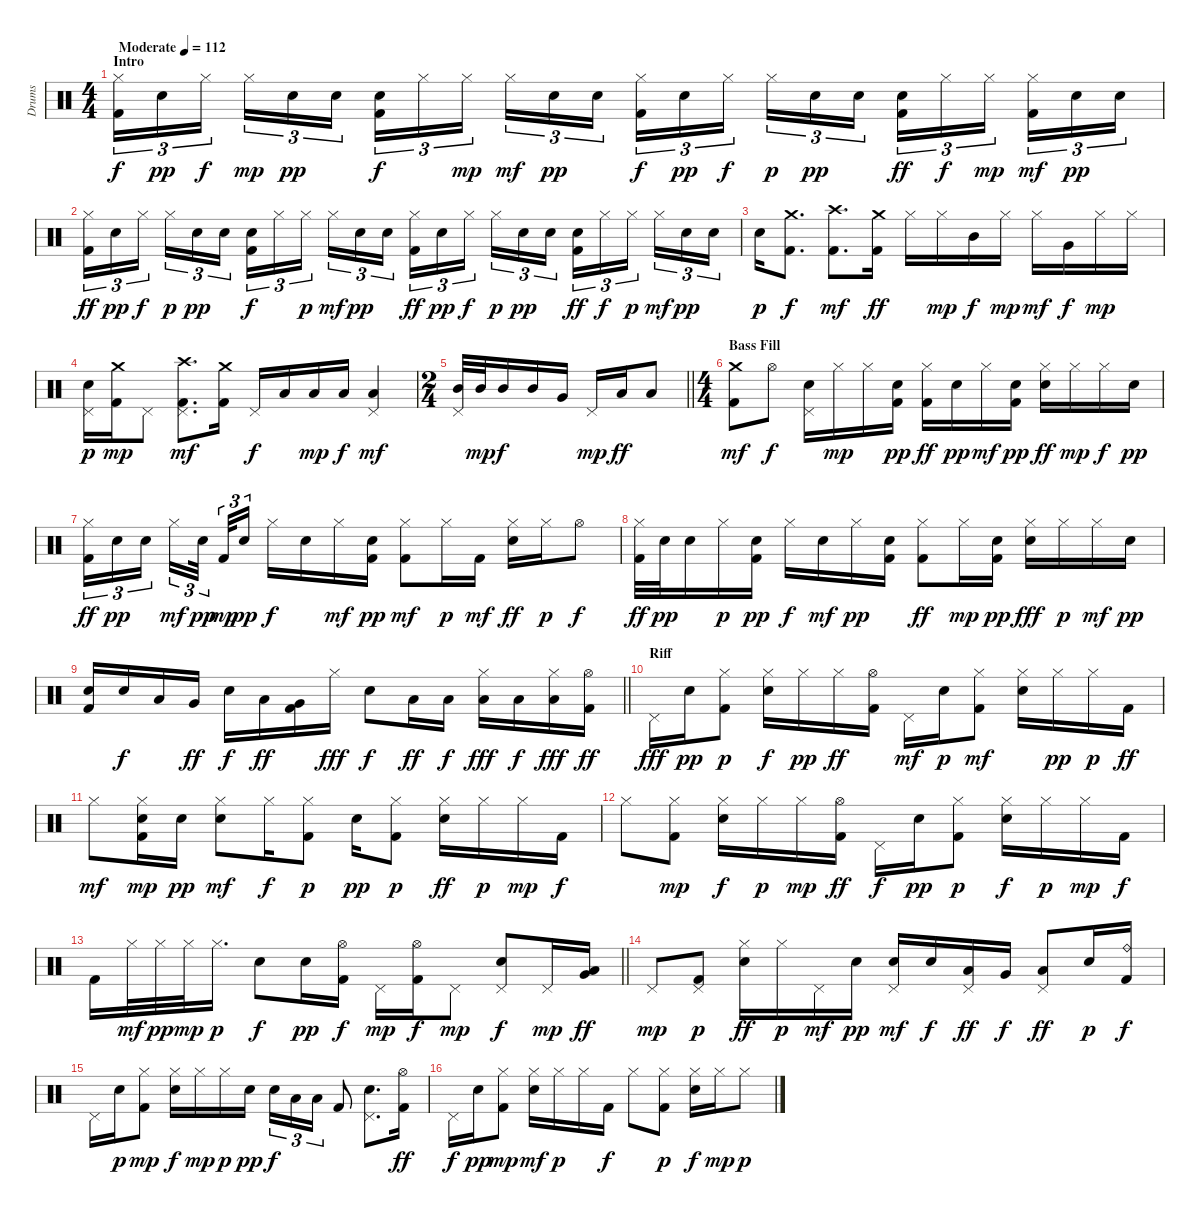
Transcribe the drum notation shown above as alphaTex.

\track ("Drums" "Drums") {instrument percussion}
\staff {score}
\articulation defaults
\ts (4 4)
\section ("" "Intro")
\tempo (112 "Moderate")
\clef neutral
\ks c
("Kick (hit) 2" "Hi-Hat (closed)").16{tu (3 2) dy f} "Snare (hit) 2".16{tu (3 2) dy pp} "Hi-Hat (closed)".16{tu (3 2) dy f beam splitsecondary} "Hi-Hat (closed)".16{tu (3 2) dy mp} "Snare (hit) 2".16{tu (3 2) dy pp} "Snare (hit) 2".16{tu (3 2)} ("Kick (hit) 2" "Snare (hit) 2").16{tu (3 2) dy f} "Hi-Hat (closed)".16{tu (3 2)} "Hi-Hat (closed)".16{tu (3 2) dy mp beam splitsecondary} "Hi-Hat (closed)".16{tu (3 2) dy mf} "Snare (hit) 2".16{tu (3 2) dy pp} "Snare (hit) 2".16{tu (3 2)} ("Kick (hit) 2" "Hi-Hat (closed)").16{tu (3 2) dy f} "Snare (hit) 2".16{tu (3 2) dy pp} "Hi-Hat (closed)".16{tu (3 2) dy f beam splitsecondary} "Hi-Hat (closed)".16{tu (3 2) dy p} "Snare (hit) 2".16{tu (3 2) dy pp} "Snare (hit) 2".16{tu (3 2)} ("Kick (hit) 2" "Snare (hit) 2").16{tu (3 2) dy ff} "Hi-Hat (closed)".16{tu (3 2) dy f} "Hi-Hat (closed)".16{tu (3 2) dy mp beam splitsecondary} ("Kick (hit) 2" "Hi-Hat (closed)").16{tu (3 2) dy mf} "Snare (hit) 2".16{tu (3 2) dy pp} "Snare (hit) 2".16{tu (3 2)} |
("Kick (hit) 2" "Hi-Hat (closed)").16{tu (3 2) dy ff} "Snare (hit) 2".16{tu (3 2) dy pp} "Hi-Hat (closed)".16{tu (3 2) dy f beam splitsecondary} "Hi-Hat (closed)".16{tu (3 2) dy p} "Snare (hit) 2".16{tu (3 2) dy pp} "Snare (hit) 2".16{tu (3 2)} ("Kick (hit) 2" "Snare (hit) 2").16{tu (3 2) dy f} "Hi-Hat (closed)".16{tu (3 2)} "Hi-Hat (closed)".16{tu (3 2) dy p beam splitsecondary} "Hi-Hat (closed)".16{tu (3 2) dy mf} "Snare (hit) 2".16{tu (3 2) dy pp} "Snare (hit) 2".16{tu (3 2)} ("Kick (hit) 2" "Hi-Hat (closed)").16{tu (3 2) dy ff} "Snare (hit) 2".16{tu (3 2) dy pp} "Hi-Hat (closed)".16{tu (3 2) dy f beam splitsecondary} "Hi-Hat (closed)".16{tu (3 2) dy p} "Snare (hit) 2".16{tu (3 2) dy pp} "Snare (hit) 2".16{tu (3 2)} ("Kick (hit) 2" "Snare (hit) 2").16{tu (3 2) dy ff} "Hi-Hat (closed)".16{tu (3 2) dy f} "Hi-Hat (closed)".16{tu (3 2) dy p beam splitsecondary} "Hi-Hat (closed)".16{tu (3 2) dy mf} "Snare (hit) 2".16{tu (3 2) dy pp} "Snare (hit) 2".16{tu (3 2)} |
"Snare (hit) 2".16{dy p} ("Kick (hit) 2" "Crash medium (hit)").8{d dy f} ("Kick (hit) 2" "Crash high (hit)").8{d dy mf} ("Kick (hit) 2" "Crash medium (hit)").16{dy ff} "Hi-Hat (closed)".16 "Hi-Hat (closed)".16{dy mp} "Mid Tom (hit)".16{dy f} "Hi-Hat (closed)".16{dy mp} "Hi-Hat (closed)".16{dy mf} "Very Low Tom (hit)".16{dy f} "Hi-Hat (closed)".16{dy mp} "Hi-Hat (closed)".16 |
("Snare (hit) 2" "Pedal Hi-Hat (hit)").16{dy p} ("Kick (hit) 2" "Crash medium (hit)").16{dy mp} "Pedal Hi-Hat (hit)".8 ("Kick (hit) 2" "Pedal Hi-Hat (hit)" "Crash high (hit)").8{d dy mf} ("Kick (hit) 2" "Crash medium (hit)").16 "Pedal Hi-Hat (hit)".16{dy f} "Low Tom (hit)".16 "Low Tom (hit)".16{dy mp} "Low Tom (hit)".16{dy f} ("Pedal Hi-Hat (hit)" "Low Floor Tom (hit)").4{dy mf} |
\ts (2 4)
\barLineRight lightlight
("Pedal Hi-Hat (hit)" "Mid Tom (hit)").32 "Mid Tom (hit)".32{dy mp} "Mid Tom (hit)".16{dy f} "Mid Tom (hit)".16 "Very Low Tom (hit)".16 "Pedal Hi-Hat (hit)".16{dy mp} "Low Floor Tom (hit)".16{dy ff} "Low Floor Tom (hit)".8 |
\ts (4 4)
\section ("" "Bass Fill")
("Kick (hit) 2" "Crash medium (hit)").8{dy mf} "Hi-Hat (open)".8{dy f} ("Snare (hit) 2" "Pedal Hi-Hat (hit)").16 "Hi-Hat (closed)".16{dy mp} "Hi-Hat (closed)".16 ("Kick (hit) 2" "Snare (hit) 2").16{dy pp} ("Kick (hit) 2" "Hi-Hat (closed)").16{dy ff} "Snare (hit) 2".16{dy pp} "Hi-Hat (closed)".16{dy mf} ("Kick (hit) 2" "Snare (hit) 2").16{dy pp} ("Snare (hit) 2" "Hi-Hat (closed)").16{dy ff} "Hi-Hat (closed)".16{dy mp} "Hi-Hat (closed)".16{dy f} "Snare (hit) 2".16{dy pp} |
("Kick (hit) 2" "Hi-Hat (closed)").16{tu (3 2) dy ff} "Snare (hit) 2".16{tu (3 2) dy pp} "Snare (hit) 2".16{tu (3 2) beam splitsecondary} "Hi-Hat (closed)".16{tu (3 2) dy mf} "Snare (hit) 2".32{tu (3 2) dy pp beam splitsecondary} "Kick (hit) 2".32{tu (3 2) dy mp} "Snare (hit) 2".16{tu (3 2) dy pp} "Hi-Hat (closed)".16{dy f} "Snare (hit) 2".16 "Hi-Hat (closed)".16{dy mf} ("Kick (hit) 2" "Snare (hit) 2").16{dy pp} ("Kick (hit) 2" "Hi-Hat (closed)").8{dy mf} "Hi-Hat (closed)".16{dy p} "Kick (hit) 2".16{dy mf} ("Snare (hit) 2" "Hi-Hat (closed)").16{dy ff} "Hi-Hat (closed)".16{dy p} "Hi-Hat (open)".8{dy f} |
("Kick (hit) 2" "Hi-Hat (closed)").32{dy ff} "Snare (hit) 2".32{dy pp} "Snare (hit) 2".16 "Hi-Hat (closed)".16{dy p} ("Kick (hit) 2" "Snare (hit) 2").16{dy pp} "Hi-Hat (closed)".16{dy f} "Snare (hit) 2".16{dy mf} "Hi-Hat (closed)".16{dy pp} ("Kick (hit) 2" "Snare (hit) 2").16 ("Kick (hit) 2" "Hi-Hat (closed)").8{dy ff} "Hi-Hat (closed)".16{dy mp} ("Kick (hit) 2" "Snare (hit) 2").16{dy pp} ("Snare (hit) 2" "Hi-Hat (closed)").16{dy fff} "Hi-Hat (closed)".16{dy p} "Hi-Hat (closed)".16{dy mf} "Snare (hit) 2".16{dy pp} |
\barLineRight lightlight
("Kick (hit) 2" "Snare (hit) 2").16 "Snare (hit) 2".16{dy f} "Low Tom (hit)".16 "Very Low Tom (hit)".16{dy ff} "Snare (hit) 2".16{dy f} "Low Tom (hit)".16{dy ff} ("Kick (hit) 2" "Very Low Tom (hit)").16 "Hi-Hat (closed)".16{dy fff} "Snare (hit) 2".8{dy f} "Low Tom (hit)".16{dy ff} "Low Tom (hit)".16{dy f} ("Hi-Hat (closed)" "Low Floor Tom (hit)").16{dy fff} "Low Floor Tom (hit)".16{dy f} ("Hi-Hat (closed)" "Low Floor Tom (hit)").16{dy fff} ("Kick (hit) 2" "Hi-Hat (open)").16{dy ff} |
\section ("" "Riff")
"Pedal Hi-Hat (hit)".16{dy fff} "Snare (hit) 2".16{dy pp} ("Kick (hit) 2" "Hi-Hat (closed)").8{dy p} ("Snare (hit) 2" "Hi-Hat (closed)").16{dy f} "Hi-Hat (closed)".16{dy pp} "Hi-Hat (closed)".16{dy ff} ("Kick (hit) 2" "Hi-Hat (open)").16 "Pedal Hi-Hat (hit)".16{dy mf} "Snare (hit) 2".16{dy p} ("Kick (hit) 2" "Hi-Hat (closed)").8{dy mf} ("Snare (hit) 2" "Hi-Hat (closed)").16 "Hi-Hat (closed)".16{dy pp} "Hi-Hat (closed)".16{dy p} "Kick (hit) 2".16{dy ff} |
"Hi-Hat (closed)".8{dy mf} ("Kick (hit) 2" "Snare (hit) 2" "Hi-Hat (closed)").16{dy mp} "Snare (hit) 2".16{dy pp} ("Snare (hit) 2" "Hi-Hat (closed)").8{dy mf} "Hi-Hat (closed)".16{dy f} ("Kick (hit) 2" "Hi-Hat (closed)").8{dy p} "Snare (hit) 2".16{dy pp} ("Kick (hit) 2" "Hi-Hat (closed)").8{dy p} ("Snare (hit) 2" "Hi-Hat (closed)").16{dy ff} "Hi-Hat (closed)".16{dy p} "Hi-Hat (closed)".16{dy mp} "Kick (hit) 2".16{dy f} |
"Hi-Hat (closed)".8 ("Kick (hit) 2" "Hi-Hat (closed)").8{dy mp} ("Snare (hit) 2" "Hi-Hat (closed)").16{dy f} "Hi-Hat (closed)".16{dy p} "Hi-Hat (closed)".16{dy mp} ("Kick (hit) 2" "Hi-Hat (open)").16{dy ff} "Pedal Hi-Hat (hit)".16{dy f} "Snare (hit) 2".16{dy pp} ("Kick (hit) 2" "Hi-Hat (closed)").8{dy p} ("Snare (hit) 2" "Hi-Hat (closed)").16{dy f} "Hi-Hat (closed)".16{dy p} "Hi-Hat (closed)".16{dy mp} "Kick (hit) 2".16{dy f} |
\barLineRight lightlight "Kick (hit) 2".16 "Hi-Hat (closed)".32{dy mf} "Hi-Hat (closed)".32{dy pp} "Hi-Hat (closed)".32{dy mp} "Hi-Hat (closed)".16{d dy p} "Snare (hit) 2".8{dy f} "Snare (hit) 2".16{dy pp}
("Kick (hit) 2" "Hi-Hat (open)").16{dy f} "Pedal Hi-Hat (hit)".16{dy mp} ("Kick (hit) 2" "Hi-Hat (open)").16{dy f} "Pedal Hi-Hat (hit)".8{dy mp} ("Snare (hit) 2" "Pedal Hi-Hat (hit)").8{dy f} "Pedal Hi-Hat (hit)".16{dy mp} ("Low Tom (hit)" "Very Low Tom (hit)").16{dy ff} |
"Pedal Hi-Hat (hit)".8{dy mp} ("Kick (hit) 2" "Pedal Hi-Hat (hit)").8{dy p} ("Snare (hit) 2" "Hi-Hat (closed)").16{dy ff} "Hi-Hat (closed)".16{dy p} "Pedal Hi-Hat (hit)".16{dy mf} "Snare (hit) 2".16{dy pp} ("Snare (hit) 2" "Pedal Hi-Hat (hit)").16{dy mf} "Snare (hit) 2".16{dy f} ("Pedal Hi-Hat (hit)" "Low Tom (hit)").16{dy ff} "Very Low Tom (hit)".16{dy f} ("Pedal Hi-Hat (hit)" "Low Floor Tom (hit)").8{dy ff} "Snare (hit) 2".16{dy p} ("Kick (hit) 2" "Ride (bell)").16{dy f} |
"Pedal Hi-Hat (hit)".16 "Snare (hit) 2".16{dy p} ("Kick (hit) 2" "Hi-Hat (closed)").8{dy mp} ("Snare (hit) 2" "Hi-Hat (closed)").16{dy f} "Hi-Hat (closed)".16{dy mp} "Hi-Hat (closed)".16{dy p} "Snare (hit) 2".16{dy pp} "Snare (hit) 2".16{tu (3 2) dy f} "Low Tom (hit)".16{tu (3 2)} "Low Floor Tom (hit)".16{tu (3 2)} "Kick (hit) 2".8 ("Snare (hit) 2" "Pedal Hi-Hat (hit)").8{d} ("Kick (hit) 2" "Hi-Hat (open)").16{dy ff} |
"Pedal Hi-Hat (hit)".16{dy f} "Snare (hit) 2".16{dy pp} ("Kick (hit) 2" "Hi-Hat (closed)").8{dy mp} ("Snare (hit) 2" "Hi-Hat (closed)").16{dy mf} "Hi-Hat (closed)".16{dy p} "Hi-Hat (closed)".16 "Kick (hit) 2".16{dy f} "Hi-Hat (closed)".8 ("Kick (hit) 2" "Hi-Hat (closed)").8{dy p} ("Snare (hit) 2" "Hi-Hat (closed)").16{dy f} "Hi-Hat (closed)".16{dy mp} "Hi-Hat (closed)".8{dy p}
